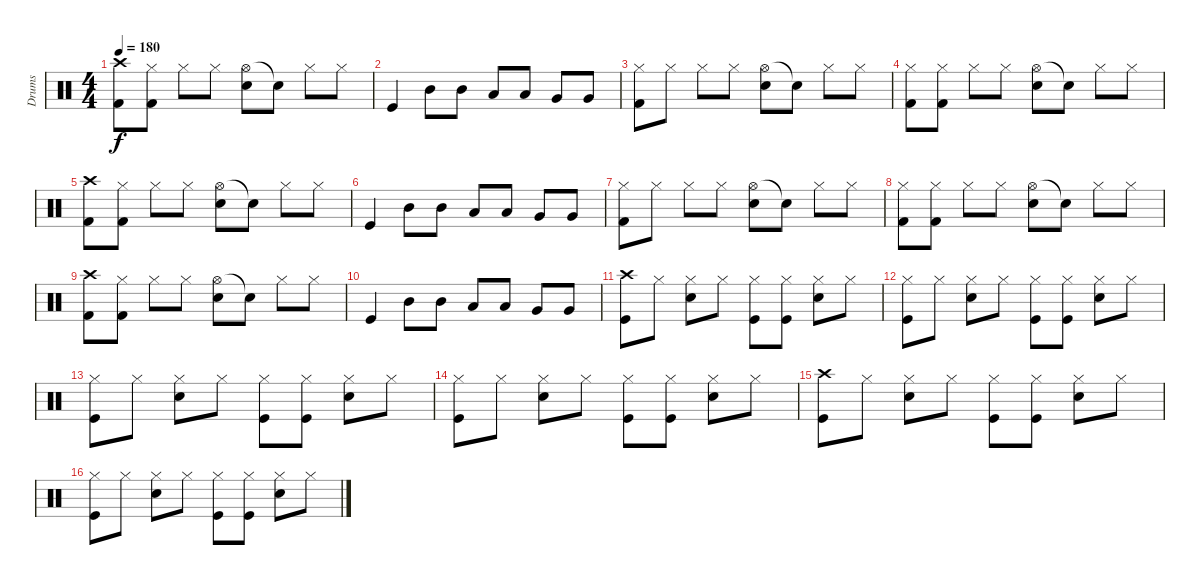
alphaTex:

\track ("Drums" "Drums") {instrument percussion}
\staff {score}
\articulation defaults
\ts (4 4)
\tempo 180
\clef neutral
\ks c
("Crash high (hit)" "Kick (hit) 2").8{dy f} ("Hi-Hat (closed)" "Kick (hit) 2").8 "Hi-Hat (closed)".8 "Hi-Hat (closed)".8 ("Hi-Hat (open)" "Snare (hit) 2").8 "Snare (hit)"{t}.8 "Hi-Hat (closed)".8 "Hi-Hat (closed)".8 |
"Kick (hit)".4 "Mid Tom (hit)".8 "Mid Tom (hit)".8 "Low Tom (hit)".8 "Low Tom (hit)".8 "Very Low Tom (hit)".8 "Very Low Tom (hit)".8 |
("Hi-Hat (closed)" "Kick (hit) 2").8 "Hi-Hat (closed)".8 "Hi-Hat (closed)".8 "Hi-Hat (closed)".8 ("Hi-Hat (open)" "Snare (hit) 2").8 "Snare (hit)"{t}.8 "Hi-Hat (closed)".8 "Hi-Hat (closed)".8 |
("Hi-Hat (closed)" "Kick (hit) 2").8 ("Hi-Hat (closed)" "Kick (hit) 2").8 "Hi-Hat (closed)".8 "Hi-Hat (closed)".8 ("Hi-Hat (open)" "Snare (hit) 2").8 "Snare (hit)"{t}.8 "Hi-Hat (closed)".8 "Hi-Hat (closed)".8 |
("Crash high (hit)" "Kick (hit) 2").8 ("Hi-Hat (closed)" "Kick (hit) 2").8 "Hi-Hat (closed)".8 "Hi-Hat (closed)".8 ("Hi-Hat (open)" "Snare (hit) 2").8 "Snare (hit)"{t}.8 "Hi-Hat (closed)".8 "Hi-Hat (closed)".8 |
"Kick (hit)".4 "Mid Tom (hit)".8 "Mid Tom (hit)".8 "Low Tom (hit)".8 "Low Tom (hit)".8 "Very Low Tom (hit)".8 "Very Low Tom (hit)".8 |
("Hi-Hat (closed)" "Kick (hit) 2").8 "Hi-Hat (closed)".8 "Hi-Hat (closed)".8 "Hi-Hat (closed)".8 ("Hi-Hat (open)" "Snare (hit) 2").8 "Snare (hit)"{t}.8 "Hi-Hat (closed)".8 "Hi-Hat (closed)".8 |
("Hi-Hat (closed)" "Kick (hit) 2").8 ("Hi-Hat (closed)" "Kick (hit) 2").8 "Hi-Hat (closed)".8 "Hi-Hat (closed)".8 ("Hi-Hat (open)" "Snare (hit) 2").8 "Snare (hit)"{t}.8 "Hi-Hat (closed)".8 "Hi-Hat (closed)".8 |
("Crash high (hit)" "Kick (hit) 2").8 ("Hi-Hat (closed)" "Kick (hit) 2").8 "Hi-Hat (closed)".8 "Hi-Hat (closed)".8 ("Hi-Hat (open)" "Snare (hit) 2").8 "Snare (hit)"{t}.8 "Hi-Hat (closed)".8 "Hi-Hat (closed)".8 |
"Kick (hit)".4 "Mid Tom (hit)".8 "Mid Tom (hit)".8 "Low Tom (hit)".8 "Low Tom (hit)".8 "Very Low Tom (hit)".8 "Very Low Tom (hit)".8 |
("Crash high (hit)" "Kick (hit)").8 "Hi-Hat (closed)".8 ("Hi-Hat (closed)" "Snare (hit) 2").8 "Hi-Hat (closed)".8 ("Hi-Hat (closed)" "Kick (hit)").8 ("Hi-Hat (closed)" "Kick (hit)").8 ("Hi-Hat (closed)" "Snare (hit) 2").8 "Hi-Hat (closed)".8 |
("Hi-Hat (closed)" "Kick (hit)").8 "Hi-Hat (closed)".8 ("Hi-Hat (closed)" "Snare (hit) 2").8 "Hi-Hat (closed)".8 ("Hi-Hat (closed)" "Kick (hit)").8 ("Hi-Hat (closed)" "Kick (hit)").8 ("Hi-Hat (closed)" "Snare (hit) 2").8 "Hi-Hat (closed)".8 |
("Hi-Hat (closed)" "Kick (hit)").8 "Hi-Hat (closed)".8 ("Hi-Hat (closed)" "Snare (hit) 2").8 "Hi-Hat (closed)".8 ("Hi-Hat (closed)" "Kick (hit)").8 ("Hi-Hat (closed)" "Kick (hit)").8 ("Hi-Hat (closed)" "Snare (hit) 2").8 "Hi-Hat (closed)".8 |
("Hi-Hat (closed)" "Kick (hit)").8 "Hi-Hat (closed)".8 ("Hi-Hat (closed)" "Snare (hit) 2").8 "Hi-Hat (closed)".8 ("Hi-Hat (closed)" "Kick (hit)").8 ("Hi-Hat (closed)" "Kick (hit)").8 ("Hi-Hat (closed)" "Snare (hit) 2").8 "Hi-Hat (closed)".8 |
("Crash high (hit)" "Kick (hit)").8 "Hi-Hat (closed)".8 ("Hi-Hat (closed)" "Snare (hit) 2").8 "Hi-Hat (closed)".8 ("Hi-Hat (closed)" "Kick (hit)").8 ("Hi-Hat (closed)" "Kick (hit)").8 ("Hi-Hat (closed)" "Snare (hit) 2").8 "Hi-Hat (closed)".8 |
("Hi-Hat (closed)" "Kick (hit)").8 "Hi-Hat (closed)".8 ("Hi-Hat (closed)" "Snare (hit) 2").8 "Hi-Hat (closed)".8 ("Hi-Hat (closed)" "Kick (hit)").8 ("Hi-Hat (closed)" "Kick (hit)").8 ("Hi-Hat (closed)" "Snare (hit) 2").8 "Hi-Hat (closed)".8
